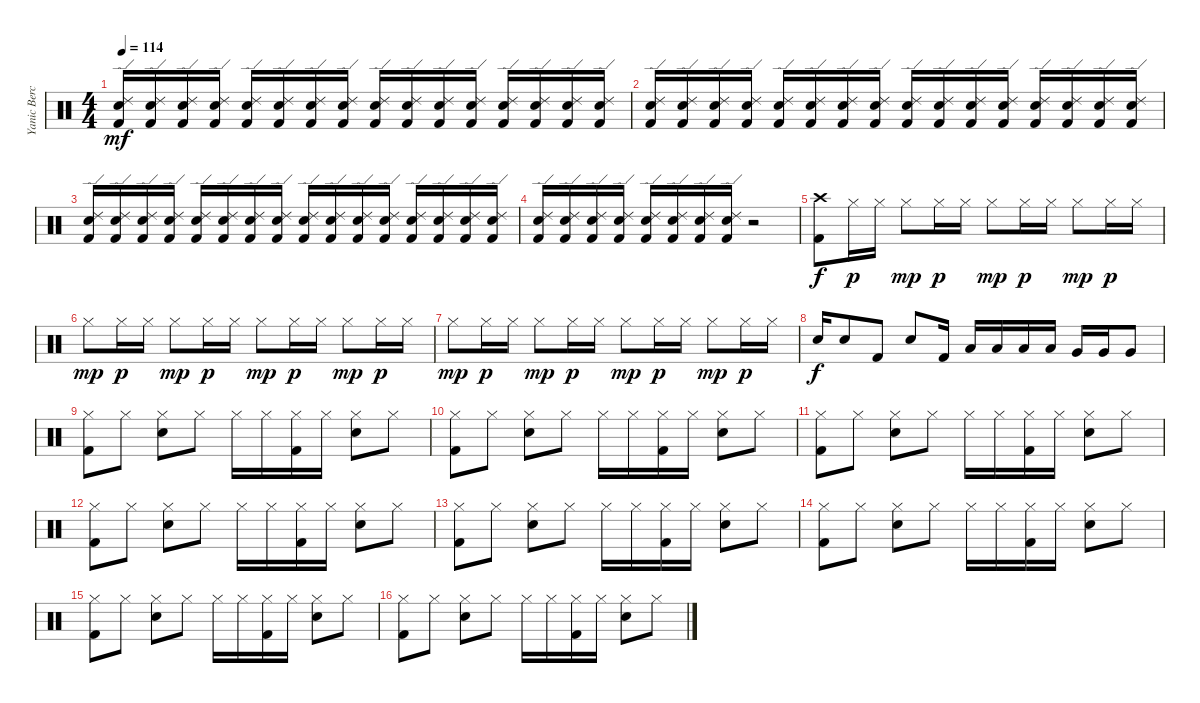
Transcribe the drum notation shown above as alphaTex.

\track ("Yanic Bercier" "Yanic Berc") {instrument percussion}
\staff {score}
\articulation defaults
\ts (4 4)
\tempo 114
\clef neutral
\ks c
("Ride (edge) 2" "Electric Snare (hit)" "Kick (hit) 2").16{dy mf} ("Ride (edge) 2" "Electric Snare (hit)" "Kick (hit) 2").16 ("Ride (edge) 2" "Electric Snare (hit)" "Kick (hit) 2").16 ("Ride (edge) 2" "Electric Snare (hit)" "Kick (hit) 2").16 ("Ride (edge) 2" "Electric Snare (hit)" "Kick (hit) 2").16 ("Ride (edge) 2" "Electric Snare (hit)" "Kick (hit) 2").16 ("Ride (edge) 2" "Electric Snare (hit)" "Kick (hit) 2").16 ("Ride (edge) 2" "Electric Snare (hit)" "Kick (hit) 2").16 ("Ride (edge) 2" "Electric Snare (hit)" "Kick (hit) 2").16 ("Ride (edge) 2" "Electric Snare (hit)" "Kick (hit) 2").16 ("Ride (edge) 2" "Electric Snare (hit)" "Kick (hit) 2").16 ("Ride (edge) 2" "Electric Snare (hit)" "Kick (hit) 2").16 ("Ride (edge) 2" "Electric Snare (hit)" "Kick (hit) 2").16 ("Ride (edge) 2" "Electric Snare (hit)" "Kick (hit) 2").16 ("Ride (edge) 2" "Electric Snare (hit)" "Kick (hit) 2").16 ("Ride (edge) 2" "Electric Snare (hit)" "Kick (hit) 2").16 |
("Ride (edge) 2" "Electric Snare (hit)" "Kick (hit) 2").16 ("Ride (edge) 2" "Electric Snare (hit)" "Kick (hit) 2").16 ("Ride (edge) 2" "Electric Snare (hit)" "Kick (hit) 2").16 ("Ride (edge) 2" "Electric Snare (hit)" "Kick (hit) 2").16 ("Ride (edge) 2" "Electric Snare (hit)" "Kick (hit) 2").16 ("Ride (edge) 2" "Electric Snare (hit)" "Kick (hit) 2").16 ("Ride (edge) 2" "Electric Snare (hit)" "Kick (hit) 2").16 ("Ride (edge) 2" "Electric Snare (hit)" "Kick (hit) 2").16 ("Ride (edge) 2" "Electric Snare (hit)" "Kick (hit) 2").16 ("Ride (edge) 2" "Electric Snare (hit)" "Kick (hit) 2").16 ("Ride (edge) 2" "Electric Snare (hit)" "Kick (hit) 2").16 ("Ride (edge) 2" "Electric Snare (hit)" "Kick (hit) 2").16 ("Ride (edge) 2" "Electric Snare (hit)" "Kick (hit) 2").16 ("Ride (edge) 2" "Electric Snare (hit)" "Kick (hit) 2").16 ("Ride (edge) 2" "Electric Snare (hit)" "Kick (hit) 2").16 ("Ride (edge) 2" "Electric Snare (hit)" "Kick (hit) 2").16 |
("Ride (edge) 2" "Electric Snare (hit)" "Kick (hit) 2").16 ("Ride (edge) 2" "Electric Snare (hit)" "Kick (hit) 2").16 ("Ride (edge) 2" "Electric Snare (hit)" "Kick (hit) 2").16 ("Ride (edge) 2" "Electric Snare (hit)" "Kick (hit) 2").16 ("Ride (edge) 2" "Electric Snare (hit)" "Kick (hit) 2").16 ("Ride (edge) 2" "Electric Snare (hit)" "Kick (hit) 2").16 ("Ride (edge) 2" "Electric Snare (hit)" "Kick (hit) 2").16 ("Ride (edge) 2" "Electric Snare (hit)" "Kick (hit) 2").16 ("Ride (edge) 2" "Electric Snare (hit)" "Kick (hit) 2").16 ("Ride (edge) 2" "Electric Snare (hit)" "Kick (hit) 2").16 ("Ride (edge) 2" "Electric Snare (hit)" "Kick (hit) 2").16 ("Ride (edge) 2" "Electric Snare (hit)" "Kick (hit) 2").16 ("Ride (edge) 2" "Electric Snare (hit)" "Kick (hit) 2").16 ("Ride (edge) 2" "Electric Snare (hit)" "Kick (hit) 2").16 ("Ride (edge) 2" "Electric Snare (hit)" "Kick (hit) 2").16 ("Ride (edge) 2" "Electric Snare (hit)" "Kick (hit) 2").16 |
("Ride (edge) 2" "Electric Snare (hit)" "Kick (hit) 2").16 ("Ride (edge) 2" "Electric Snare (hit)" "Kick (hit) 2").16 ("Ride (edge) 2" "Electric Snare (hit)" "Kick (hit) 2").16 ("Ride (edge) 2" "Electric Snare (hit)" "Kick (hit) 2").16 ("Ride (edge) 2" "Electric Snare (hit)" "Kick (hit) 2").16 ("Ride (edge) 2" "Electric Snare (hit)" "Kick (hit) 2").16 ("Ride (edge) 2" "Electric Snare (hit)" "Kick (hit) 2").16 ("Ride (edge) 2" "Electric Snare (hit)" "Kick (hit) 2").16 r.2 |
("Crash high (hit)" "Kick (hit) 2").8{dy f} "Hi-Hat (closed)".16{dy p} "Hi-Hat (closed)".16 "Hi-Hat (closed)".8{dy mp} "Hi-Hat (closed)".16{dy p} "Hi-Hat (closed)".16 "Hi-Hat (closed)".8{dy mp} "Hi-Hat (closed)".16{dy p} "Hi-Hat (closed)".16 "Hi-Hat (closed)".8{dy mp} "Hi-Hat (closed)".16{dy p} "Hi-Hat (closed)".16 |
"Hi-Hat (closed)".8{dy mp} "Hi-Hat (closed)".16{dy p} "Hi-Hat (closed)".16 "Hi-Hat (closed)".8{dy mp} "Hi-Hat (closed)".16{dy p} "Hi-Hat (closed)".16 "Hi-Hat (closed)".8{dy mp} "Hi-Hat (closed)".16{dy p} "Hi-Hat (closed)".16 "Hi-Hat (closed)".8{dy mp} "Hi-Hat (closed)".16{dy p} "Hi-Hat (closed)".16 |
"Hi-Hat (closed)".8{dy mp} "Hi-Hat (closed)".16{dy p} "Hi-Hat (closed)".16 "Hi-Hat (closed)".8{dy mp} "Hi-Hat (closed)".16{dy p} "Hi-Hat (closed)".16 "Hi-Hat (closed)".8{dy mp} "Hi-Hat (closed)".16{dy p} "Hi-Hat (closed)".16 "Hi-Hat (closed)".8{dy mp} "Hi-Hat (closed)".16{dy p} "Hi-Hat (closed)".16 |
"Electric Snare (hit)".16{dy f} "Electric Snare (hit)".8 "Kick (hit) 2".8 "Electric Snare (hit)".8 "Kick (hit) 2".16 "Low Tom (hit)".16 "Low Tom (hit)".16 "Low Tom (hit)".16 "Low Tom (hit)".16 "Very Low Tom (hit)".16 "Very Low Tom (hit)".16 "Very Low Tom (hit)".8 |
("Hi-Hat (closed)" "Kick (hit) 2").8 "Hi-Hat (closed)".8 ("Hi-Hat (closed)" "Electric Snare (hit)").8 "Hi-Hat (closed)".8 "Hi-Hat (closed)".16 "Hi-Hat (closed)".16 ("Hi-Hat (closed)" "Kick (hit) 2").16 "Hi-Hat (closed)".16 ("Hi-Hat (closed)" "Electric Snare (hit)").8 "Hi-Hat (closed)".8 |
("Hi-Hat (closed)" "Kick (hit) 2").8 "Hi-Hat (closed)".8 ("Hi-Hat (closed)" "Electric Snare (hit)").8 "Hi-Hat (closed)".8 "Hi-Hat (closed)".16 "Hi-Hat (closed)".16 ("Hi-Hat (closed)" "Kick (hit) 2").16 "Hi-Hat (closed)".16 ("Hi-Hat (closed)" "Electric Snare (hit)").8 "Hi-Hat (closed)".8 |
("Hi-Hat (closed)" "Kick (hit) 2").8 "Hi-Hat (closed)".8 ("Hi-Hat (closed)" "Electric Snare (hit)").8 "Hi-Hat (closed)".8 "Hi-Hat (closed)".16 "Hi-Hat (closed)".16 ("Hi-Hat (closed)" "Kick (hit) 2").16 "Hi-Hat (closed)".16 ("Hi-Hat (closed)" "Electric Snare (hit)").8 "Hi-Hat (closed)".8 |
("Hi-Hat (closed)" "Kick (hit) 2").8 "Hi-Hat (closed)".8 ("Hi-Hat (closed)" "Electric Snare (hit)").8 "Hi-Hat (closed)".8 "Hi-Hat (closed)".16 "Hi-Hat (closed)".16 ("Hi-Hat (closed)" "Kick (hit) 2").16 "Hi-Hat (closed)".16 ("Hi-Hat (closed)" "Electric Snare (hit)").8 "Hi-Hat (closed)".8 |
("Hi-Hat (closed)" "Kick (hit) 2").8 "Hi-Hat (closed)".8 ("Hi-Hat (closed)" "Electric Snare (hit)").8 "Hi-Hat (closed)".8 "Hi-Hat (closed)".16 "Hi-Hat (closed)".16 ("Hi-Hat (closed)" "Kick (hit) 2").16 "Hi-Hat (closed)".16 ("Hi-Hat (closed)" "Electric Snare (hit)").8 "Hi-Hat (closed)".8 |
("Hi-Hat (closed)" "Kick (hit) 2").8 "Hi-Hat (closed)".8 ("Hi-Hat (closed)" "Electric Snare (hit)").8 "Hi-Hat (closed)".8 "Hi-Hat (closed)".16 "Hi-Hat (closed)".16 ("Hi-Hat (closed)" "Kick (hit) 2").16 "Hi-Hat (closed)".16 ("Hi-Hat (closed)" "Electric Snare (hit)").8 "Hi-Hat (closed)".8 |
("Hi-Hat (closed)" "Kick (hit) 2").8 "Hi-Hat (closed)".8 ("Hi-Hat (closed)" "Electric Snare (hit)").8 "Hi-Hat (closed)".8 "Hi-Hat (closed)".16 "Hi-Hat (closed)".16 ("Hi-Hat (closed)" "Kick (hit) 2").16 "Hi-Hat (closed)".16 ("Hi-Hat (closed)" "Electric Snare (hit)").8 "Hi-Hat (closed)".8 |
("Hi-Hat (closed)" "Kick (hit) 2").8 "Hi-Hat (closed)".8 ("Hi-Hat (closed)" "Electric Snare (hit)").8 "Hi-Hat (closed)".8 "Hi-Hat (closed)".16 "Hi-Hat (closed)".16 ("Hi-Hat (closed)" "Kick (hit) 2").16 "Hi-Hat (closed)".16 ("Hi-Hat (closed)" "Electric Snare (hit)").8 "Hi-Hat (closed)".8
